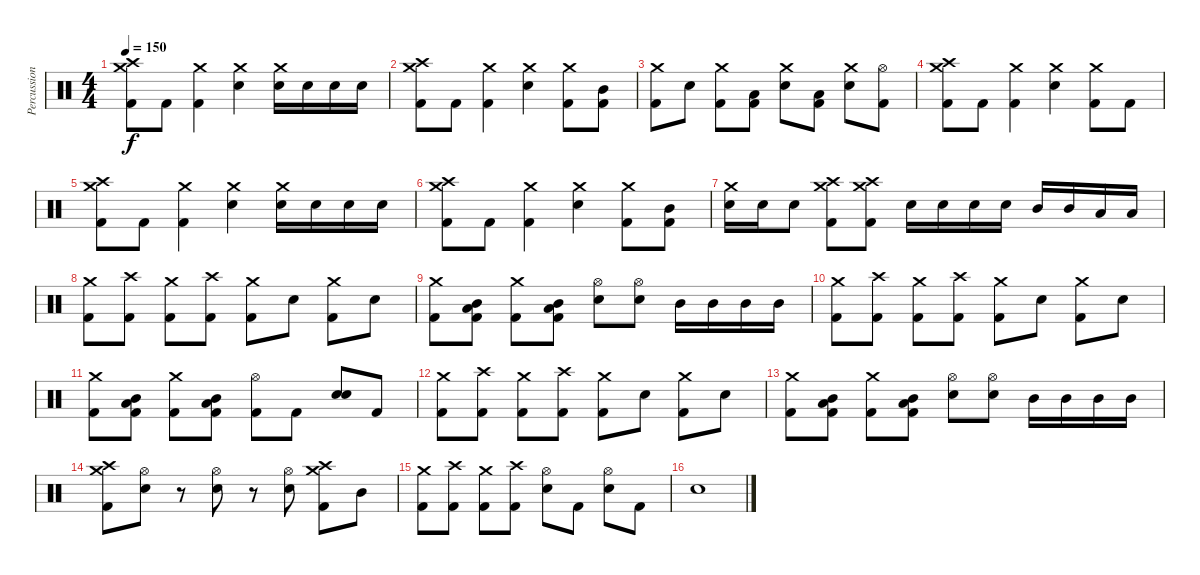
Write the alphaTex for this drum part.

\track ("Percussion" "Percussion") {instrument percussion}
\staff {score}
\articulation defaults
\ts (4 4)
\tempo 150
\clef neutral
\ks c
("Crash medium (hit)" "Crash high (hit)" "Kick (hit) 2").8{dy f} "Kick (hit) 2".8 ("Crash medium (hit)" "Kick (hit) 2").4 ("Crash medium (hit)" "Snare (hit) 2").4 ("Crash medium (hit)" "Snare (hit) 2").16 "Snare (hit) 2".16 "Snare (hit) 2".16 "Snare (hit) 2".16 |
("Crash medium (hit)" "Crash high (hit)" "Kick (hit) 2").8 "Kick (hit) 2".8 ("Crash medium (hit)" "Kick (hit) 2").4 ("Crash medium (hit)" "Snare (hit) 2").4 ("Crash medium (hit)" "Kick (hit) 2").8 ("Mid Tom (hit)" "Kick (hit) 2").8 |
("Crash medium (hit)" "Kick (hit) 2").8 "Snare (hit) 2".8 ("Crash medium (hit)" "Kick (hit) 2").8 ("Low Floor Tom (hit)" "Kick (hit) 2").8 ("Crash medium (hit)" "Snare (hit) 2").8 ("Low Tom (hit)" "Kick (hit) 2").8 ("Crash medium (hit)" "Snare (hit) 2").8 ("Hi-Hat (open)" "Kick (hit) 2").8 |
("Crash medium (hit)" "Crash high (hit)" "Kick (hit) 2").8 "Kick (hit) 2".8 ("Crash medium (hit)" "Kick (hit) 2").4 ("Crash medium (hit)" "Snare (hit) 2").4 ("Crash medium (hit)" "Kick (hit) 2").8 "Kick (hit) 2".8 |
("Crash medium (hit)" "Crash high (hit)" "Kick (hit) 2").8 "Kick (hit) 2".8 ("Crash medium (hit)" "Kick (hit) 2").4 ("Crash medium (hit)" "Snare (hit) 2").4 ("Crash medium (hit)" "Snare (hit) 2").16 "Snare (hit) 2".16 "Snare (hit) 2".16 "Snare (hit) 2".16 |
("Crash medium (hit)" "Crash high (hit)" "Kick (hit) 2").8 "Kick (hit) 2".8 ("Crash medium (hit)" "Kick (hit) 2").4 ("Crash medium (hit)" "Snare (hit) 2").4 ("Crash medium (hit)" "Kick (hit) 2").8 ("Mid Tom (hit)" "Kick (hit) 2").8 |
("Crash medium (hit)" "Snare (hit) 2").16 "Snare (hit) 2".16 "Snare (hit) 2".8 ("Crash medium (hit)" "Crash high (hit)" "Kick (hit) 2").8 ("Crash medium (hit)" "Crash high (hit)" "Kick (hit) 2").8 "Snare (hit) 2".16 "Snare (hit) 2".16 "Snare (hit) 2".16 "Snare (hit) 2".16 "Mid Tom (hit)".16 "Mid Tom (hit)".16 "Low Tom (hit)".16 "Low Tom (hit)".16 |
("Crash medium (hit)" "Kick (hit) 2").8 ("Crash high (hit)" "Kick (hit) 2").8 ("Crash medium (hit)" "Kick (hit) 2").8 ("Crash high (hit)" "Kick (hit) 2").8 ("Crash medium (hit)" "Kick (hit) 2").8 "Snare (hit) 2".8 ("Crash medium (hit)" "Kick (hit) 2").8 "Snare (hit) 2".8 |
("Crash medium (hit)" "Kick (hit) 2").8 ("Mid Tom (hit)" "Low Tom (hit)" "Kick (hit) 2").8 ("Crash medium (hit)" "Kick (hit) 2").8 ("Mid Tom (hit)" "Low Tom (hit)" "Kick (hit) 2").8 ("Hi-Hat (open)" "Snare (hit) 2").8 ("Hi-Hat (open)" "Snare (hit) 2").8 "Mid Tom (hit)".16 "Mid Tom (hit)".16 "Mid Tom (hit)".16 "Mid Tom (hit)".16 |
("Crash medium (hit)" "Kick (hit) 2").8 ("Crash high (hit)" "Kick (hit) 2").8 ("Crash medium (hit)" "Kick (hit) 2").8 ("Crash high (hit)" "Kick (hit) 2").8 ("Crash medium (hit)" "Kick (hit) 2").8 "Snare (hit) 2".8 ("Crash medium (hit)" "Kick (hit) 2").8 "Snare (hit) 2".8 |
("Crash medium (hit)" "Kick (hit) 2").8 ("Mid Tom (hit)" "Low Tom (hit)" "Kick (hit) 2").8 ("Crash medium (hit)" "Kick (hit) 2").8 ("Mid Tom (hit)" "Low Tom (hit)" "Kick (hit) 2").8 ("Hi-Hat (open)" "Kick (hit) 2").8 "Kick (hit) 2".8 ("Snare (hit) 2" "Snare (hit) 2").8 "Kick (hit) 2".8 |
("Crash medium (hit)" "Kick (hit) 2").8 ("Crash high (hit)" "Kick (hit) 2").8 ("Crash medium (hit)" "Kick (hit) 2").8 ("Crash high (hit)" "Kick (hit) 2").8 ("Crash medium (hit)" "Kick (hit) 2").8 "Snare (hit) 2".8 ("Crash medium (hit)" "Kick (hit) 2").8 "Snare (hit) 2".8 |
("Crash medium (hit)" "Kick (hit) 2").8 ("Mid Tom (hit)" "Low Tom (hit)" "Kick (hit) 2").8 ("Crash medium (hit)" "Kick (hit) 2").8 ("Mid Tom (hit)" "Low Tom (hit)" "Kick (hit) 2").8 ("Hi-Hat (open)" "Snare (hit) 2").8 ("Hi-Hat (open)" "Snare (hit) 2").8 "Mid Tom (hit)".16 "Mid Tom (hit)".16 "Mid Tom (hit)".16 "Mid Tom (hit)".16 |
("Crash medium (hit)" "Crash high (hit)" "Kick (hit) 2").8 ("Hi-Hat (open)" "Snare (hit) 2").8 r.8 ("Hi-Hat (open)" "Snare (hit) 2").8 r.8 ("Hi-Hat (open)" "Snare (hit) 2").8 ("Crash medium (hit)" "Crash high (hit)" "Kick (hit) 2").8 "Mid Tom (hit)".8 |
("Crash medium (hit)" "Kick (hit) 2").8 ("Crash high (hit)" "Kick (hit) 2").8 ("Crash medium (hit)" "Kick (hit) 2").8 ("Crash high (hit)" "Kick (hit) 2").8 ("Hi-Hat (open)" "Snare (hit) 2").8 "Kick (hit) 2".8 ("Hi-Hat (open)" "Snare (hit) 2").8 "Kick (hit) 2".8 |
"Snare (hit)".1
